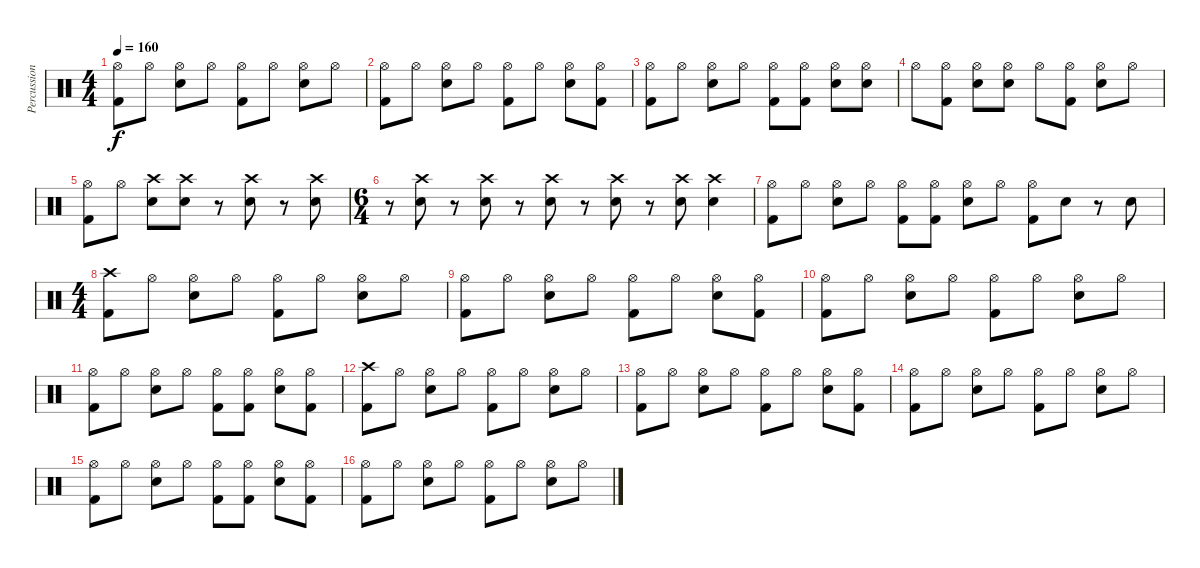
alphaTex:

\track ("Percussion" "Percussion") {instrument percussion}
\staff {score}
\articulation defaults
\ts (4 4)
\tempo 160
\clef neutral
\ks c
("Hi-Hat (open)" "Kick (hit) 2").8{dy f} "Hi-Hat (open)".8 ("Hi-Hat (open)" "Snare (hit) 2").8 "Hi-Hat (open)".8 ("Hi-Hat (open)" "Kick (hit) 2").8 "Hi-Hat (open)".8 ("Hi-Hat (open)" "Snare (hit) 2").8 "Hi-Hat (open)".8 |
("Hi-Hat (open)" "Kick (hit) 2").8 "Hi-Hat (open)".8 ("Hi-Hat (open)" "Snare (hit) 2").8 "Hi-Hat (open)".8 ("Hi-Hat (open)" "Kick (hit) 2").8 "Hi-Hat (open)".8 ("Hi-Hat (open)" "Snare (hit) 2").8 ("Hi-Hat (open)" "Kick (hit) 2").8 |
("Hi-Hat (open)" "Kick (hit) 2").8 "Hi-Hat (open)".8 ("Hi-Hat (open)" "Snare (hit) 2").8 "Hi-Hat (open)".8 ("Hi-Hat (open)" "Kick (hit) 2").8 ("Hi-Hat (open)" "Kick (hit) 2").8 ("Hi-Hat (open)" "Snare (hit) 2").8 ("Hi-Hat (open)" "Snare (hit) 2").8 |
"Hi-Hat (open)".8 ("Hi-Hat (open)" "Kick (hit) 2").8 ("Hi-Hat (open)" "Snare (hit) 2").8 ("Hi-Hat (open)" "Snare (hit) 2").8 "Hi-Hat (open)".8 ("Hi-Hat (open)" "Kick (hit) 2").8 ("Hi-Hat (open)" "Snare (hit) 2").8 "Hi-Hat (open)".8 |
("Hi-Hat (open)" "Kick (hit) 2").8 "Hi-Hat (open)".8 ("Crash high (hit)" "Snare (hit) 2").8 ("Crash high (hit)" "Snare (hit) 2").8 r.8 ("Crash high (hit)" "Snare (hit) 2").8 r.8 ("Crash high (hit)" "Snare (hit) 2").8 |
\ts (6 4)
r.8 ("Crash high (hit)" "Snare (hit) 2").8 r.8 ("Crash high (hit)" "Snare (hit) 2").8 r.8 ("Crash high (hit)" "Snare (hit) 2").8 r.8 ("Crash high (hit)" "Snare (hit) 2").8 r.8 ("Crash high (hit)" "Snare (hit) 2").8 ("Crash high (hit)" "Snare (hit) 2").4 |
("Hi-Hat (open)" "Kick (hit) 2").8 "Hi-Hat (open)".8 ("Hi-Hat (open)" "Snare (hit) 2").8 "Hi-Hat (open)".8 ("Hi-Hat (open)" "Kick (hit) 2").8 ("Hi-Hat (open)" "Kick (hit) 2").8 ("Hi-Hat (open)" "Snare (hit) 2").8 "Hi-Hat (open)".8 ("Hi-Hat (open)" "Kick (hit) 2").8 "Snare (hit) 2".8 r.8 "Snare (hit) 2".8 |
\ts (4 4)
("Crash high (hit)" "Kick (hit) 2").8 "Hi-Hat (open)".8 ("Hi-Hat (open)" "Snare (hit) 2").8 "Hi-Hat (open)".8 ("Hi-Hat (open)" "Kick (hit) 2").8 "Hi-Hat (open)".8 ("Hi-Hat (open)" "Snare (hit) 2").8 "Hi-Hat (open)".8 |
("Hi-Hat (open)" "Kick (hit) 2").8 "Hi-Hat (open)".8 ("Hi-Hat (open)" "Snare (hit) 2").8 "Hi-Hat (open)".8 ("Hi-Hat (open)" "Kick (hit) 2").8 "Hi-Hat (open)".8 ("Hi-Hat (open)" "Snare (hit) 2").8 ("Hi-Hat (open)" "Kick (hit) 2").8 |
("Hi-Hat (open)" "Kick (hit) 2").8 "Hi-Hat (open)".8 ("Hi-Hat (open)" "Snare (hit) 2").8 "Hi-Hat (open)".8 ("Hi-Hat (open)" "Kick (hit) 2").8 "Hi-Hat (open)".8 ("Hi-Hat (open)" "Snare (hit) 2").8 "Hi-Hat (open)".8 |
("Hi-Hat (open)" "Kick (hit) 2").8 "Hi-Hat (open)".8 ("Hi-Hat (open)" "Snare (hit) 2").8 "Hi-Hat (open)".8 ("Hi-Hat (open)" "Kick (hit) 2").8 ("Hi-Hat (open)" "Kick (hit) 2").8 ("Hi-Hat (open)" "Snare (hit) 2").8 ("Hi-Hat (open)" "Kick (hit) 2").8 |
("Crash high (hit)" "Kick (hit) 2").8 "Hi-Hat (open)".8 ("Hi-Hat (open)" "Snare (hit) 2").8 "Hi-Hat (open)".8 ("Hi-Hat (open)" "Kick (hit) 2").8 "Hi-Hat (open)".8 ("Hi-Hat (open)" "Snare (hit) 2").8 "Hi-Hat (open)".8 |
("Hi-Hat (open)" "Kick (hit) 2").8 "Hi-Hat (open)".8 ("Hi-Hat (open)" "Snare (hit) 2").8 "Hi-Hat (open)".8 ("Hi-Hat (open)" "Kick (hit) 2").8 "Hi-Hat (open)".8 ("Hi-Hat (open)" "Snare (hit) 2").8 ("Hi-Hat (open)" "Kick (hit) 2").8 |
("Hi-Hat (open)" "Kick (hit) 2").8 "Hi-Hat (open)".8 ("Hi-Hat (open)" "Snare (hit) 2").8 "Hi-Hat (open)".8 ("Hi-Hat (open)" "Kick (hit) 2").8 "Hi-Hat (open)".8 ("Hi-Hat (open)" "Snare (hit) 2").8 "Hi-Hat (open)".8 |
("Hi-Hat (open)" "Kick (hit) 2").8 "Hi-Hat (open)".8 ("Hi-Hat (open)" "Snare (hit) 2").8 "Hi-Hat (open)".8 ("Hi-Hat (open)" "Kick (hit) 2").8 ("Hi-Hat (open)" "Kick (hit) 2").8 ("Hi-Hat (open)" "Snare (hit) 2").8 ("Hi-Hat (open)" "Kick (hit) 2").8 |
("Hi-Hat (open)" "Kick (hit) 2").8 "Hi-Hat (open)".8 ("Hi-Hat (open)" "Snare (hit) 2").8 "Hi-Hat (open)".8 ("Hi-Hat (open)" "Kick (hit) 2").8 "Hi-Hat (open)".8 ("Hi-Hat (open)" "Snare (hit) 2").8 "Hi-Hat (open)".8
